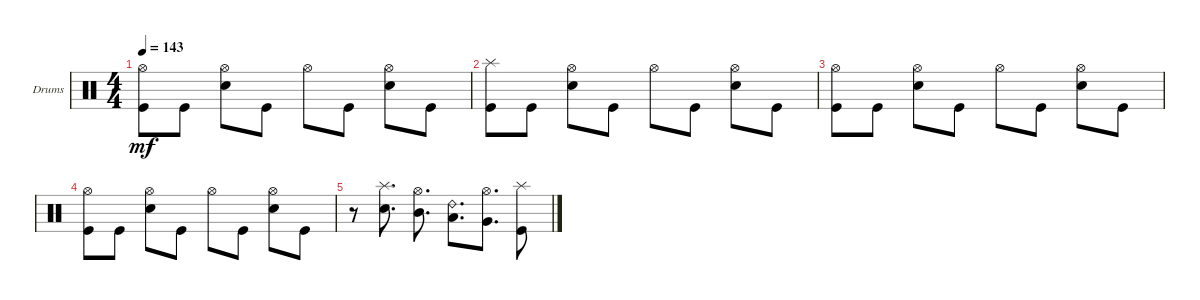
\defaultSystemsLayout 4
\bracketExtendMode groupsimilarinstruments
\firstSystemTrackNameOrientation horizontal
\otherSystemsTrackNameOrientation horizontal
\track ("Drumkit" "Drums") {instrument percussion}
\staff {score}
\articulation defaults
\ts (4 4)
\tempo 143
\clef neutral
\ks c
("Kick (hit)" "Hi-Hat (open)").8{dy mf} "Kick (hit)".8 ("Snare (hit) 2" "Hi-Hat (open)").8 "Kick (hit)".8 "Hi-Hat (open)".8 "Kick (hit)".8 ("Snare (hit) 2" "Hi-Hat (open)").8 "Kick (hit)".8 |
("Splash (hit)" "Kick (hit)").8 "Kick (hit)".8 ("Snare (hit) 2" "Hi-Hat (open)").8 "Kick (hit)".8 "Hi-Hat (open)".8 "Kick (hit)".8 ("Snare (hit) 2" "Hi-Hat (open)").8 "Kick (hit)".8 |
("Kick (hit)" "Hi-Hat (open)").8 "Kick (hit)".8 ("Snare (hit) 2" "Hi-Hat (open)").8 "Kick (hit)".8 "Hi-Hat (open)".8 "Kick (hit)".8 ("Snare (hit) 2" "Hi-Hat (open)").8 "Kick (hit)".8 |
("Kick (hit)" "Hi-Hat (open)").8 "Kick (hit)".8 ("Snare (hit) 2" "Hi-Hat (open)").8 "Kick (hit)".8 "Hi-Hat (open)".8 "Kick (hit)".8 ("Snare (hit) 2" "Hi-Hat (open)").8 "Kick (hit)".8 |
r.8 ("Snare (hit) 2" "Splash (hit)").8{d} ("Mid Tom (hit)" "Hi-Hat (open)").8{d} ("Low Tom (hit)" "Ride (bell) 2").8{d} ("Very Low Tom (hit)" "Hi-Hat (open)").8{d} ("Kick (hit)" "Splash (hit)").8
